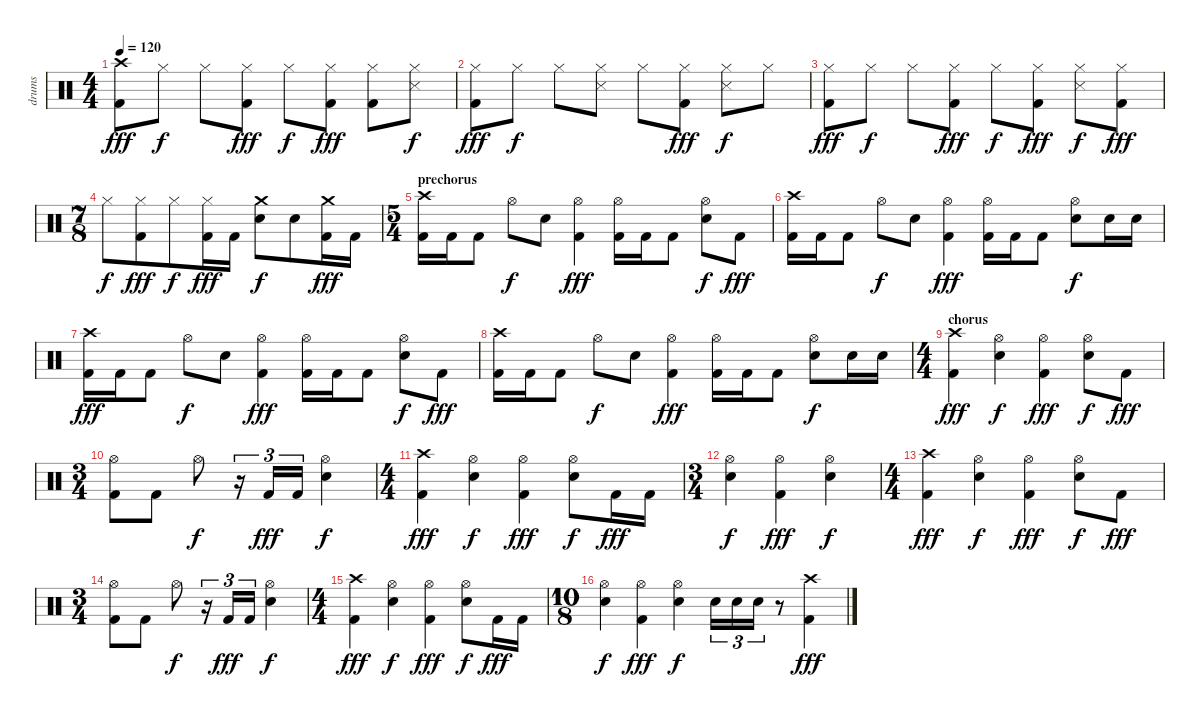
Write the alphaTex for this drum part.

\track ("drums" "drums") {instrument percussion}
\staff {score}
\articulation defaults
\ts (4 4)
\tempo 120
\clef neutral
\ks c
("Crash high (hit)" "Kick (hit) 2").8{dy fff} "Hi-Hat (closed)".8{dy f} "Hi-Hat (closed)".8 ("Hi-Hat (closed)" "Kick (hit) 2").8{dy fff} "Hi-Hat (closed)".8{dy f} ("Hi-Hat (closed)" "Kick (hit) 2").8{dy fff} ("Hi-Hat (closed)" "Kick (hit) 2").8 ("Hi-Hat (closed)" "Snare (side stick) 3").8{dy f} |
("Hi-Hat (closed)" "Kick (hit) 2").8{dy fff} "Hi-Hat (closed)".8{dy f} "Hi-Hat (closed)".8 ("Hi-Hat (closed)" "Snare (side stick) 3").8 "Hi-Hat (closed)".8 ("Hi-Hat (closed)" "Kick (hit) 2").8{dy fff} ("Hi-Hat (closed)" "Snare (side stick) 3").8{dy f} "Hi-Hat (closed)".8 |
("Hi-Hat (closed)" "Kick (hit) 2").8{dy fff} "Hi-Hat (closed)".8{dy f} "Hi-Hat (closed)".8 ("Hi-Hat (closed)" "Kick (hit) 2").8{dy fff} "Hi-Hat (closed)".8{dy f} ("Hi-Hat (closed)" "Kick (hit) 2").8{dy fff} ("Hi-Hat (closed)" "Snare (side stick) 3").8{dy f} ("Hi-Hat (closed)" "Kick (hit) 2").8{dy fff} |
\ts (7 8)
"Hi-Hat (closed)".8{dy f} ("Hi-Hat (closed)" "Kick (hit) 2").8{dy fff} "Hi-Hat (closed)".8{dy f} ("Hi-Hat (closed)" "Kick (hit) 2").16{dy fff} "Kick (hit) 2".16 ("Crash medium (hit)" "Snare (hit) 2").8{dy f} "Snare (hit) 2".8 ("Crash medium (hit)" "Kick (hit) 2").16{dy fff} "Kick (hit) 2".16 |
\ts (5 4)
\section ("" "prechorus")
("Crash high (hit)" "Kick (hit) 2").16 "Kick (hit) 2".16 "Kick (hit) 2".8 "Hi-Hat (open)".8{dy f} "Snare (hit) 2".8 ("Hi-Hat (open)" "Kick (hit) 2").4{dy fff} ("Hi-Hat (open)" "Kick (hit) 2").16 "Kick (hit) 2".16 "Kick (hit) 2".8 ("Hi-Hat (open)" "Snare (hit) 2").8{dy f} "Kick (hit) 2".8{dy fff} |
("Crash high (hit)" "Kick (hit) 2").16 "Kick (hit) 2".16 "Kick (hit) 2".8 "Hi-Hat (open)".8{dy f} "Snare (hit) 2".8 ("Hi-Hat (open)" "Kick (hit) 2").4{dy fff} ("Hi-Hat (open)" "Kick (hit) 2").16 "Kick (hit) 2".16 "Kick (hit) 2".8 ("Hi-Hat (open)" "Snare (hit) 2").8{dy f} "Snare (hit) 2".16 "Snare (hit) 2".16 |
("Crash high (hit)" "Kick (hit) 2").16{dy fff} "Kick (hit) 2".16 "Kick (hit) 2".8 "Hi-Hat (open)".8{dy f} "Snare (hit) 2".8 ("Hi-Hat (open)" "Kick (hit) 2").4{dy fff} ("Hi-Hat (open)" "Kick (hit) 2").16 "Kick (hit) 2".16 "Kick (hit) 2".8 ("Hi-Hat (open)" "Snare (hit) 2").8{dy f} "Kick (hit) 2".8{dy fff} |
("Crash high (hit)" "Kick (hit) 2").16 "Kick (hit) 2".16 "Kick (hit) 2".8 "Hi-Hat (open)".8{dy f} "Snare (hit) 2".8 ("Hi-Hat (open)" "Kick (hit) 2").4{dy fff} ("Hi-Hat (open)" "Kick (hit) 2").16 "Kick (hit) 2".16 "Kick (hit) 2".8 ("Hi-Hat (open)" "Snare (hit) 2").8{dy f} "Snare (hit) 2".16 "Snare (hit) 2".16 |
\ts (4 4)
\section ("" "chorus")
("Crash high (hit)" "Kick (hit) 2").4{dy fff} ("Hi-Hat (open)" "Snare (hit) 2").4{dy f} ("Hi-Hat (open)" "Kick (hit) 2").4{dy fff} ("Hi-Hat (open)" "Snare (hit) 2").8{dy f} "Kick (hit) 2".8{dy fff} |
\ts (3 4)
("Hi-Hat (open)" "Kick (hit) 2").8 "Kick (hit) 2".8 "Hi-Hat (open)".8{dy f} r.16{tu (3 2)} "Kick (hit) 2".16{tu (3 2) dy fff} "Kick (hit) 2".16{tu (3 2)} ("Hi-Hat (open)" "Snare (hit) 2").4{dy f} |
\ts (4 4)
("Crash high (hit)" "Kick (hit) 2").4{dy fff} ("Hi-Hat (open)" "Snare (hit) 2").4{dy f} ("Hi-Hat (open)" "Kick (hit) 2").4{dy fff} ("Hi-Hat (open)" "Snare (hit) 2").8{dy f} "Kick (hit) 2".16{dy fff} "Kick (hit) 2".16 |
\ts (3 4)
("Hi-Hat (open)" "Snare (hit) 2").4{dy f} ("Hi-Hat (open)" "Kick (hit) 2").4{dy fff} ("Hi-Hat (open)" "Snare (hit) 2").4{dy f} |
\ts (4 4)
("Crash high (hit)" "Kick (hit) 2").4{dy fff} ("Hi-Hat (open)" "Snare (hit) 2").4{dy f} ("Hi-Hat (open)" "Kick (hit) 2").4{dy fff} ("Hi-Hat (open)" "Snare (hit) 2").8{dy f} "Kick (hit) 2".8{dy fff} |
\ts (3 4)
("Hi-Hat (open)" "Kick (hit) 2").8 "Kick (hit) 2".8 "Hi-Hat (open)".8{dy f} r.16{tu (3 2)} "Kick (hit) 2".16{tu (3 2) dy fff} "Kick (hit) 2".16{tu (3 2)} ("Hi-Hat (open)" "Snare (hit) 2").4{dy f} |
\ts (4 4)
("Crash high (hit)" "Kick (hit) 2").4{dy fff} ("Hi-Hat (open)" "Snare (hit) 2").4{dy f} ("Hi-Hat (open)" "Kick (hit) 2").4{dy fff} ("Hi-Hat (open)" "Snare (hit) 2").8{dy f} "Kick (hit) 2".16{dy fff} "Kick (hit) 2".16 |
\ts (10 8)
("Hi-Hat (open)" "Snare (hit) 2").4{dy f} ("Hi-Hat (open)" "Kick (hit) 2").4{dy fff} ("Hi-Hat (open)" "Snare (hit) 2").4{dy f} "Snare (hit) 2".16{tu (3 2)} "Snare (hit) 2".16{tu (3 2)} "Snare (hit) 2".16{tu (3 2)} r.8 ("Crash high (hit)" "Kick (hit) 2").4{dy fff}
